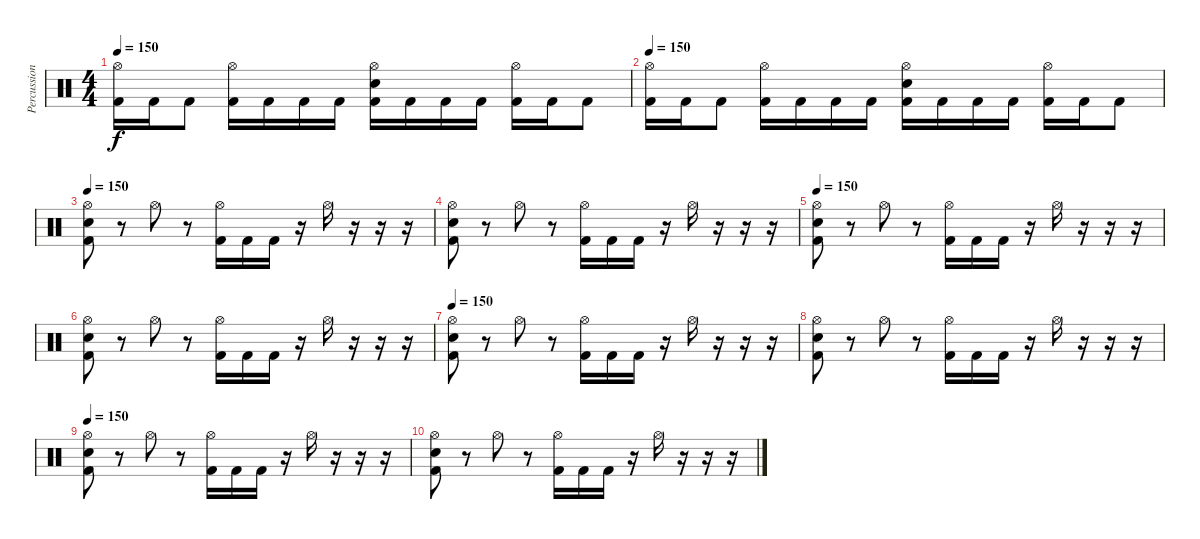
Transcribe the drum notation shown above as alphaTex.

\track ("Percussion" "Percussion") {instrument percussion}
\staff {score}
\articulation defaults
\ts (4 4)
\tempo 120
\tempo 150
\clef neutral
\ks c
("Hi-Hat (open)" "Kick (hit) 2").16{dy f} "Kick (hit) 2".16 "Kick (hit) 2".8 ("Hi-Hat (open)" "Kick (hit) 2").16 "Kick (hit) 2".16 "Kick (hit) 2".16 "Kick (hit) 2".16 ("Hi-Hat (open)" "Snare (hit) 2" "Kick (hit) 2").16 "Kick (hit) 2".16 "Kick (hit) 2".16 "Kick (hit) 2".16 ("Hi-Hat (open)" "Kick (hit) 2").16 "Kick (hit) 2".16 "Kick (hit) 2".8 |
\tempo 150
("Hi-Hat (open)" "Kick (hit) 2").16 "Kick (hit) 2".16 "Kick (hit) 2".8 ("Hi-Hat (open)" "Kick (hit) 2").16 "Kick (hit) 2".16 "Kick (hit) 2".16 "Kick (hit) 2".16 ("Hi-Hat (open)" "Snare (hit) 2" "Kick (hit) 2").16 "Kick (hit) 2".16 "Kick (hit) 2".16 "Kick (hit) 2".16 ("Hi-Hat (open)" "Kick (hit) 2").16 "Kick (hit) 2".16 "Kick (hit) 2".8 |
\tempo 150
("Hi-Hat (open)" "Snare (hit) 2" "Kick (hit) 2").8 r.8 "Hi-Hat (open)".8 r.8 ("Hi-Hat (open)" "Kick (hit) 2").16 "Kick (hit) 2".16 "Kick (hit) 2".16 r.16 "Hi-Hat (open)".16 r.16 r.16 r.16 |
("Hi-Hat (open)" "Snare (hit) 2" "Kick (hit) 2").8 r.8 "Hi-Hat (open)".8 r.8 ("Hi-Hat (open)" "Kick (hit) 2").16 "Kick (hit) 2".16 "Kick (hit) 2".16 r.16 "Hi-Hat (open)".16 r.16 r.16 r.16 |
\tempo 150
("Hi-Hat (open)" "Snare (hit) 2" "Kick (hit) 2").8 r.8 "Hi-Hat (open)".8 r.8 ("Hi-Hat (open)" "Kick (hit) 2").16 "Kick (hit) 2".16 "Kick (hit) 2".16 r.16 "Hi-Hat (open)".16 r.16 r.16 r.16 |
("Hi-Hat (open)" "Snare (hit) 2" "Kick (hit) 2").8 r.8 "Hi-Hat (open)".8 r.8 ("Hi-Hat (open)" "Kick (hit) 2").16 "Kick (hit) 2".16 "Kick (hit) 2".16 r.16 "Hi-Hat (open)".16 r.16 r.16 r.16 |
\tempo 150
("Hi-Hat (open)" "Snare (hit) 2" "Kick (hit) 2").8 r.8 "Hi-Hat (open)".8 r.8 ("Hi-Hat (open)" "Kick (hit) 2").16 "Kick (hit) 2".16 "Kick (hit) 2".16 r.16 "Hi-Hat (open)".16 r.16 r.16 r.16 |
("Hi-Hat (open)" "Snare (hit) 2" "Kick (hit) 2").8 r.8 "Hi-Hat (open)".8 r.8 ("Hi-Hat (open)" "Kick (hit) 2").16 "Kick (hit) 2".16 "Kick (hit) 2".16 r.16 "Hi-Hat (open)".16 r.16 r.16 r.16 |
\tempo 150
("Hi-Hat (open)" "Snare (hit) 2" "Kick (hit) 2").8 r.8 "Hi-Hat (open)".8 r.8 ("Hi-Hat (open)" "Kick (hit) 2").16 "Kick (hit) 2".16 "Kick (hit) 2".16 r.16 "Hi-Hat (open)".16 r.16 r.16 r.16 |
("Hi-Hat (open)" "Snare (hit) 2" "Kick (hit) 2").8 r.8 "Hi-Hat (open)".8 r.8 ("Hi-Hat (open)" "Kick (hit) 2").16 "Kick (hit) 2".16 "Kick (hit) 2".16 r.16 "Hi-Hat (open)".16 r.16 r.16 r.16
